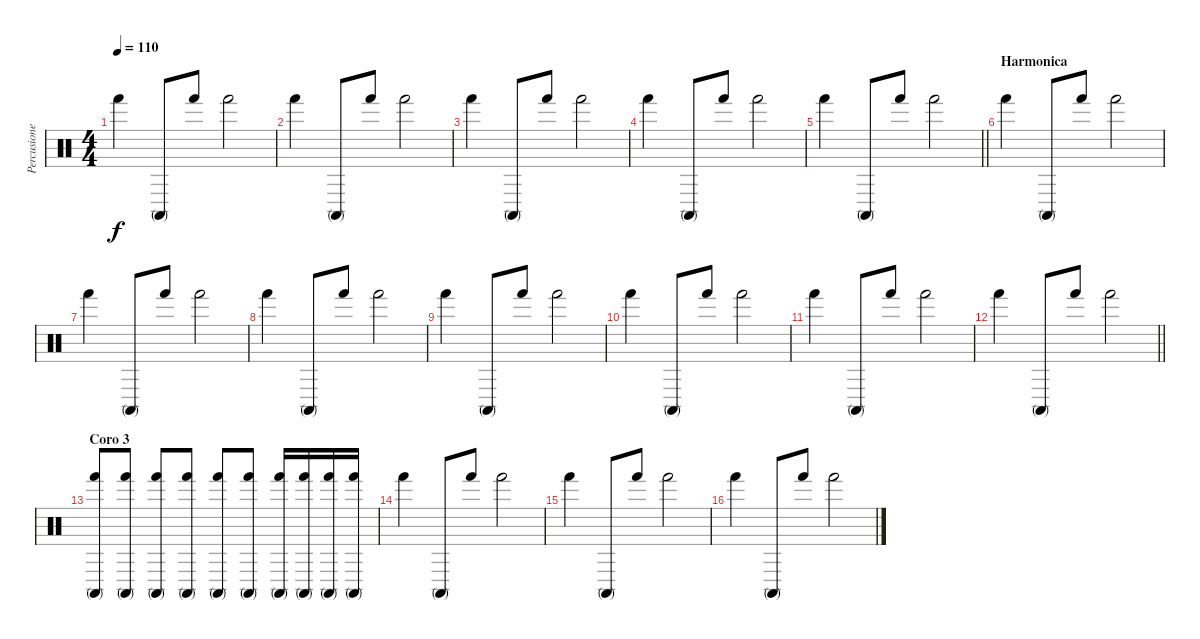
\track ("Percusiones" "Percusione") {instrument percussion}
\staff {score}
\articulation defaults
\ts (4 4)
\tempo 110
\clef neutral
\ks c "Hand (hit)".4{dy f} "Conga high (mute)".8 "Hand (hit)".8 "Hand (hit)".2
|
"Hand (hit)".4 "Conga high (mute)".8 "Hand (hit)".8 "Hand (hit)".2 |
"Hand (hit)".4 "Conga high (mute)".8 "Hand (hit)".8 "Hand (hit)".2 |
"Hand (hit)".4 "Conga high (mute)".8 "Hand (hit)".8 "Hand (hit)".2 |
\barLineRight lightlight "Hand (hit)".4 "Conga high (mute)".8 "Hand (hit)".8 "Hand (hit)".2
|
\section ("" "Harmonica")
"Hand (hit)".4 "Conga high (mute)".8 "Hand (hit)".8 "Hand (hit)".2 |
"Hand (hit)".4 "Conga high (mute)".8 "Hand (hit)".8 "Hand (hit)".2 |
"Hand (hit)".4 "Conga high (mute)".8 "Hand (hit)".8 "Hand (hit)".2 |
"Hand (hit)".4 "Conga high (mute)".8 "Hand (hit)".8 "Hand (hit)".2 |
"Hand (hit)".4 "Conga high (mute)".8 "Hand (hit)".8 "Hand (hit)".2 |
"Hand (hit)".4 "Conga high (mute)".8 "Hand (hit)".8 "Hand (hit)".2 |
\barLineRight lightlight "Hand (hit)".4 "Conga high (mute)".8 "Hand (hit)".8 "Hand (hit)".2
|
\section ("" "Coro 3")
("Hand (hit)" "Conga high (mute)").8 ("Hand (hit)" "Conga high (mute)").8 ("Hand (hit)" "Conga high (mute)").8 ("Hand (hit)" "Conga high (mute)").8 ("Hand (hit)" "Conga high (mute)").8 ("Hand (hit)" "Conga high (mute)").8 ("Hand (hit)" "Conga high (mute)").16 ("Hand (hit)" "Conga high (mute)").16 ("Hand (hit)" "Conga high (mute)").16 ("Hand (hit)" "Conga high (mute)").16 |
"Hand (hit)".4 "Conga high (mute)".8 "Hand (hit)".8 "Hand (hit)".2 |
"Hand (hit)".4 "Conga high (mute)".8 "Hand (hit)".8 "Hand (hit)".2 |
"Hand (hit)".4 "Conga high (mute)".8 "Hand (hit)".8 "Hand (hit)".2
